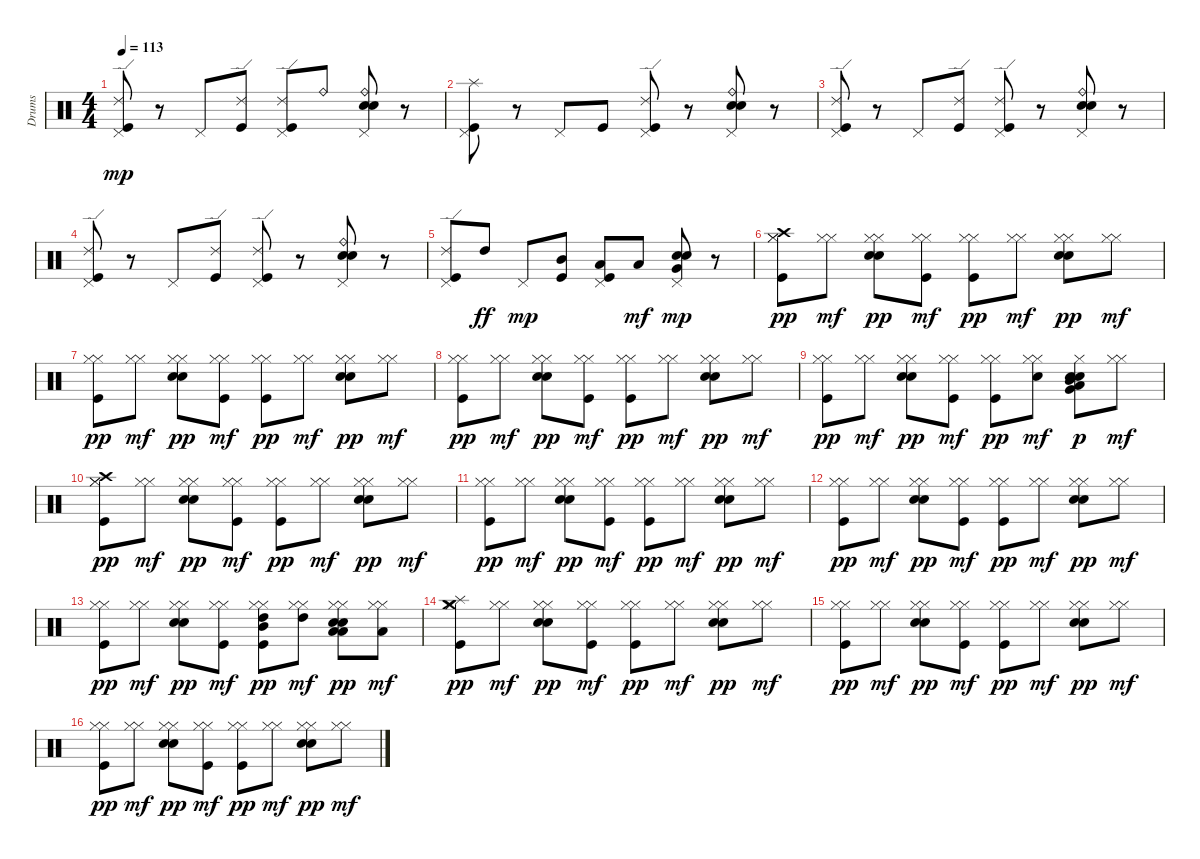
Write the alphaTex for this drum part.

\track ("Drums" "Drums") {instrument percussion}
\staff {score}
\articulation defaults
\ts (4 4)
\tempo 113
\clef neutral
\ks c
("Ride (edge) 2" "Kick (hit)" "Pedal Hi-Hat (hit)").8{dy mp} r.8 "Pedal Hi-Hat (hit)".8 ("Ride (edge) 2" "Kick (hit)").8 ("Ride (edge) 2" "Kick (hit)" "Pedal Hi-Hat (hit)").8 "Ride (bell)".8 ("Ride (bell)" "Snare (hit) 2" "Electric Snare (hit)" "Pedal Hi-Hat (hit)").8 r.8 |
("Splash (hit)" "Kick (hit)" "Pedal Hi-Hat (hit)").8 r.8 "Pedal Hi-Hat (hit)".8 "Kick (hit)".8 ("Ride (edge) 2" "Kick (hit)" "Pedal Hi-Hat (hit)").8 r.8 ("Ride (bell)" "Snare (hit) 2" "Electric Snare (hit)" "Pedal Hi-Hat (hit)").8 r.8 |
("Ride (edge) 2" "Kick (hit)" "Pedal Hi-Hat (hit)").8 r.8 "Pedal Hi-Hat (hit)".8 ("Ride (edge) 2" "Kick (hit)").8 ("Ride (edge) 2" "Kick (hit)" "Pedal Hi-Hat (hit)").8 r.8 ("Ride (bell)" "Snare (hit) 2" "Electric Snare (hit)" "Pedal Hi-Hat (hit)").8 r.8 |
("Ride (edge) 2" "Kick (hit)" "Pedal Hi-Hat (hit)").8 r.8 "Pedal Hi-Hat (hit)".8 ("Ride (edge) 2" "Kick (hit)").8 ("Ride (edge) 2" "Kick (hit)" "Pedal Hi-Hat (hit)").8 r.8 ("Ride (bell)" "Snare (hit) 2" "Electric Snare (hit)" "Pedal Hi-Hat (hit)").8 r.8 |
("Ride (edge) 2" "Kick (hit)" "Pedal Hi-Hat (hit)").8 "High Tom (hit)".8{dy ff} "Pedal Hi-Hat (hit)".8{dy mp} ("Mid Tom (hit)" "Kick (hit)").8 ("Low Tom (hit)" "Kick (hit)" "Pedal Hi-Hat (hit)").8 "Low Tom (hit)".8{dy mf} ("Very Low Tom (hit)" "Snare (hit) 2" "Electric Snare (hit)" "Pedal Hi-Hat (hit)").8{dy mp} r.8 |
("Crash high (hit)" "Kick (hit)" "Hi-Hat (closed)" "Hi-Hat (closed)").8{dy pp} ("Hi-Hat (closed)" "Hi-Hat (closed)").8{dy mf} ("Snare (hit) 2" "Electric Snare (hit)" "Hi-Hat (closed)" "Hi-Hat (closed)").8{dy pp} ("Kick (hit)" "Hi-Hat (closed)" "Hi-Hat (closed)").8{dy mf} ("Kick (hit)" "Hi-Hat (closed)" "Hi-Hat (closed)").8{dy pp} ("Hi-Hat (closed)" "Hi-Hat (closed)").8{dy mf} ("Snare (hit) 2" "Electric Snare (hit)" "Hi-Hat (closed)" "Hi-Hat (closed)").8{dy pp} ("Hi-Hat (closed)" "Hi-Hat (closed)").8{dy mf} |
("Kick (hit)" "Hi-Hat (closed)" "Hi-Hat (closed)").8{dy pp} ("Hi-Hat (closed)" "Hi-Hat (closed)").8{dy mf} ("Snare (hit) 2" "Electric Snare (hit)" "Hi-Hat (closed)" "Hi-Hat (closed)").8{dy pp} ("Kick (hit)" "Hi-Hat (closed)" "Hi-Hat (closed)").8{dy mf} ("Kick (hit)" "Hi-Hat (closed)" "Hi-Hat (closed)").8{dy pp} ("Hi-Hat (closed)" "Hi-Hat (closed)").8{dy mf} ("Snare (hit) 2" "Electric Snare (hit)" "Hi-Hat (closed)" "Hi-Hat (closed)").8{dy pp} ("Hi-Hat (closed)" "Hi-Hat (closed)").8{dy mf} |
("Kick (hit)" "Hi-Hat (closed)" "Hi-Hat (closed)").8{dy pp} ("Hi-Hat (closed)" "Hi-Hat (closed)").8{dy mf} ("Snare (hit) 2" "Electric Snare (hit)" "Hi-Hat (closed)" "Hi-Hat (closed)").8{dy pp} ("Kick (hit)" "Hi-Hat (closed)" "Hi-Hat (closed)").8{dy mf} ("Kick (hit)" "Hi-Hat (closed)" "Hi-Hat (closed)").8{dy pp} ("Hi-Hat (closed)" "Hi-Hat (closed)").8{dy mf} ("Snare (hit) 2" "Electric Snare (hit)" "Hi-Hat (closed)" "Hi-Hat (closed)").8{dy pp} ("Hi-Hat (closed)" "Hi-Hat (closed)").8{dy mf} |
("Kick (hit)" "Hi-Hat (closed)" "Hi-Hat (closed)").8{dy pp} ("Hi-Hat (closed)" "Hi-Hat (closed)").8{dy mf} ("Snare (hit) 2" "Electric Snare (hit)" "Hi-Hat (closed)" "Hi-Hat (closed)").8{dy pp} ("Kick (hit)" "Hi-Hat (closed)" "Hi-Hat (closed)").8{dy mf} ("Kick (hit)" "Hi-Hat (closed)" "Hi-Hat (closed)").8{dy pp} ("Electric Snare (hit)" "Hi-Hat (closed)" "Hi-Hat (closed)").8{dy mf} ("Mid Tom (hit)" "Very Low Tom (hit)" "Low Tom (hit)" "Snare (hit) 2" "Electric Snare (hit)" "Hi-Hat (closed)").8{dy p} ("Hi-Hat (closed)" "Hi-Hat (closed)").8{dy mf} |
("Crash high (hit)" "Kick (hit)" "Hi-Hat (closed)" "Hi-Hat (closed)").8{dy pp} ("Hi-Hat (closed)" "Hi-Hat (closed)").8{dy mf} ("Snare (hit) 2" "Electric Snare (hit)" "Hi-Hat (closed)" "Hi-Hat (closed)").8{dy pp} ("Kick (hit)" "Hi-Hat (closed)" "Hi-Hat (closed)").8{dy mf} ("Kick (hit)" "Hi-Hat (closed)" "Hi-Hat (closed)").8{dy pp} ("Hi-Hat (closed)" "Hi-Hat (closed)").8{dy mf} ("Snare (hit) 2" "Electric Snare (hit)" "Hi-Hat (closed)" "Hi-Hat (closed)").8{dy pp} ("Hi-Hat (closed)" "Hi-Hat (closed)").8{dy mf} |
("Kick (hit)" "Hi-Hat (closed)" "Hi-Hat (closed)").8{dy pp} ("Hi-Hat (closed)" "Hi-Hat (closed)").8{dy mf} ("Snare (hit) 2" "Electric Snare (hit)" "Hi-Hat (closed)" "Hi-Hat (closed)").8{dy pp} ("Kick (hit)" "Hi-Hat (closed)" "Hi-Hat (closed)").8{dy mf} ("Kick (hit)" "Hi-Hat (closed)" "Hi-Hat (closed)").8{dy pp} ("Hi-Hat (closed)" "Hi-Hat (closed)").8{dy mf} ("Snare (hit) 2" "Electric Snare (hit)" "Hi-Hat (closed)" "Hi-Hat (closed)").8{dy pp} ("Hi-Hat (closed)" "Hi-Hat (closed)").8{dy mf} |
("Kick (hit)" "Hi-Hat (closed)" "Hi-Hat (closed)").8{dy pp} ("Hi-Hat (closed)" "Hi-Hat (closed)").8{dy mf} ("Snare (hit) 2" "Electric Snare (hit)" "Hi-Hat (closed)" "Hi-Hat (closed)").8{dy pp} ("Kick (hit)" "Hi-Hat (closed)" "Hi-Hat (closed)").8{dy mf} ("Kick (hit)" "Hi-Hat (closed)" "Hi-Hat (closed)").8{dy pp} ("Hi-Hat (closed)" "Hi-Hat (closed)").8{dy mf} ("Snare (hit) 2" "Electric Snare (hit)" "Hi-Hat (closed)" "Hi-Hat (closed)").8{dy pp} ("Hi-Hat (closed)" "Hi-Hat (closed)").8{dy mf} |
("Kick (hit)" "Hi-Hat (closed)" "Hi-Hat (closed)").8{dy pp} ("Hi-Hat (closed)" "Hi-Hat (closed)").8{dy mf} ("Snare (hit) 2" "Electric Snare (hit)" "Hi-Hat (closed)" "Hi-Hat (closed)").8{dy pp} ("Kick (hit)" "Hi-Hat (closed)" "Hi-Hat (closed)").8{dy mf} ("Mid Tom (hit)" "High Tom (hit)" "Kick (hit)" "Hi-Hat (closed)" "Hi-Hat (closed)").8{dy pp} ("High Tom (hit)" "Hi-Hat (closed)" "Hi-Hat (closed)").8{dy mf} ("Low Tom (hit)" "Snare (hit) 2" "Electric Snare (hit)" "Hi-Hat (closed)" "Low Tom (hit)" "Hi-Hat (closed)").8{dy pp} ("Low Tom (hit)" "Hi-Hat (closed)" "Hi-Hat (closed)").8{dy mf} |
("Crash medium (hit)" "Splash (hit)" "Kick (hit)" "Hi-Hat (closed)" "Hi-Hat (closed)").8{dy pp} ("Hi-Hat (closed)" "Hi-Hat (closed)").8{dy mf} ("Snare (hit) 2" "Electric Snare (hit)" "Hi-Hat (closed)" "Hi-Hat (closed)").8{dy pp} ("Kick (hit)" "Hi-Hat (closed)" "Hi-Hat (closed)").8{dy mf} ("Kick (hit)" "Hi-Hat (closed)" "Hi-Hat (closed)").8{dy pp} ("Hi-Hat (closed)" "Hi-Hat (closed)").8{dy mf} ("Snare (hit) 2" "Electric Snare (hit)" "Hi-Hat (closed)" "Hi-Hat (closed)").8{dy pp} ("Hi-Hat (closed)" "Hi-Hat (closed)").8{dy mf} |
("Kick (hit)" "Hi-Hat (closed)" "Hi-Hat (closed)").8{dy pp} ("Hi-Hat (closed)" "Hi-Hat (closed)").8{dy mf} ("Snare (hit) 2" "Electric Snare (hit)" "Hi-Hat (closed)" "Hi-Hat (closed)").8{dy pp} ("Kick (hit)" "Hi-Hat (closed)" "Hi-Hat (closed)").8{dy mf} ("Kick (hit)" "Hi-Hat (closed)" "Hi-Hat (closed)").8{dy pp} ("Hi-Hat (closed)" "Hi-Hat (closed)").8{dy mf} ("Snare (hit) 2" "Electric Snare (hit)" "Hi-Hat (closed)" "Hi-Hat (closed)").8{dy pp} ("Hi-Hat (closed)" "Hi-Hat (closed)").8{dy mf} |
("Kick (hit)" "Hi-Hat (closed)" "Hi-Hat (closed)").8{dy pp} ("Hi-Hat (closed)" "Hi-Hat (closed)").8{dy mf} ("Snare (hit) 2" "Electric Snare (hit)" "Hi-Hat (closed)" "Hi-Hat (closed)").8{dy pp} ("Kick (hit)" "Hi-Hat (closed)" "Hi-Hat (closed)").8{dy mf} ("Kick (hit)" "Hi-Hat (closed)" "Hi-Hat (closed)").8{dy pp} ("Hi-Hat (closed)" "Hi-Hat (closed)").8{dy mf} ("Snare (hit) 2" "Electric Snare (hit)" "Hi-Hat (closed)" "Hi-Hat (closed)").8{dy pp} ("Hi-Hat (closed)" "Hi-Hat (closed)").8{dy mf}
